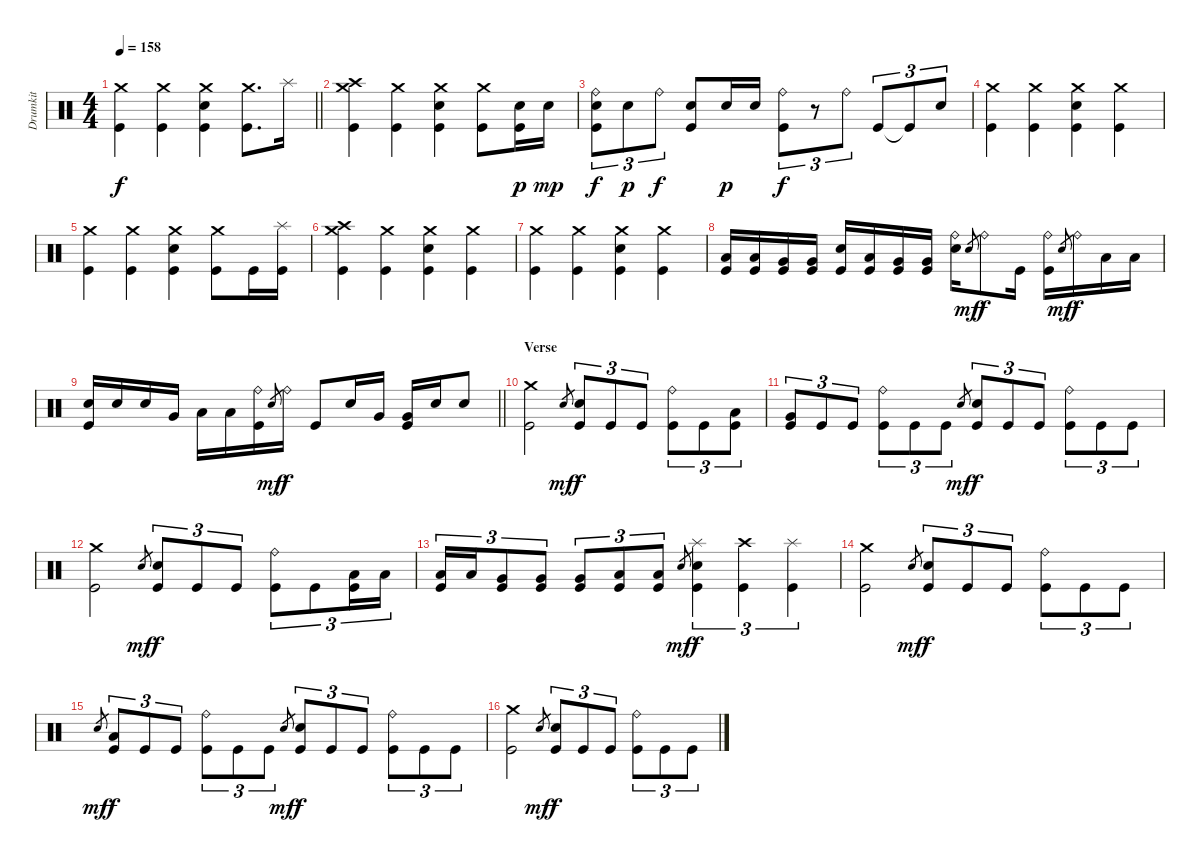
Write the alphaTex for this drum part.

\track ("Drumkit" "Drumkit") {instrument percussion}
\staff {score}
\articulation defaults
\ts (4 4)
\tempo 158
\clef neutral
\barLineRight lightlight
\ks c
("Crash medium (hit)" "Kick (hit)").4{dy f} ("Crash medium (hit)" "Kick (hit)").4 ("Crash medium (hit)" "Snare (hit) 2" "Kick (hit)").4 ("Crash medium (hit)" "Kick (hit)").8{d} "Splash (hit)".16 |
("Crash medium (hit)" "Crash high (hit)" "Kick (hit)").4 ("Crash medium (hit)" "Kick (hit)").4 ("Crash medium (hit)" "Snare (hit) 2" "Kick (hit)").4 ("Crash medium (hit)" "Kick (hit)").8 ("Snare (hit) 2" "Kick (hit)").16{dy p} "Snare (hit) 2".16{dy mp} |
("Ride (bell)" "Snare (hit) 2" "Kick (hit)").8{tu (3 2) dy f} "Snare (hit) 2".8{tu (3 2) dy p} "Ride (bell)".8{tu (3 2) dy f} ("Snare (hit) 2" "Kick (hit)").8 "Snare (hit) 2".16{dy p} "Snare (hit) 2".16 ("Ride (bell)" "Kick (hit)").8{tu (3 2) dy f} r.8{tu (3 2)} "Ride (bell)".8{tu (3 2)} "Kick (hit)".8{tu (3 2)} "Kick (hit)"{t}.8{tu (3 2)} "Snare (hit) 2".8{tu (3 2)} |
("Crash medium (hit)" "Kick (hit)").4 ("Crash medium (hit)" "Kick (hit)").4 ("Crash medium (hit)" "Snare (hit) 2" "Kick (hit)").4 ("Crash medium (hit)" "Kick (hit)").4 |
("Crash medium (hit)" "Kick (hit)").4 ("Crash medium (hit)" "Kick (hit)").4 ("Crash medium (hit)" "Snare (hit) 2" "Kick (hit)").4 ("Crash medium (hit)" "Kick (hit)").8 "Kick (hit)".16 ("Splash (hit)" "Kick (hit)").16 |
("Crash medium (hit)" "Crash high (hit)" "Kick (hit)").4 ("Crash medium (hit)" "Kick (hit)").4 ("Crash medium (hit)" "Snare (hit) 2" "Kick (hit)").4 ("Crash medium (hit)" "Kick (hit)").4 |
("Crash medium (hit)" "Kick (hit)").4 ("Crash medium (hit)" "Kick (hit)").4 ("Crash medium (hit)" "Snare (hit) 2" "Kick (hit)").4 ("Crash medium (hit)" "Kick (hit)").4 |
("Low Tom (hit)" "Kick (hit)").16 ("Low Tom (hit)" "Kick (hit)").16 ("Very Low Tom (hit)" "Kick (hit)").16 ("Very Low Tom (hit)" "Kick (hit)").16 ("Snare (hit) 2" "Kick (hit)").16 ("Low Tom (hit)" "Kick (hit)").16 ("Very Low Tom (hit)" "Kick (hit)").16 ("Very Low Tom (hit)" "Kick (hit)").16 ("Ride (bell)" "Snare (hit) 2").16 "Snare (hit)".8{gr dy mf} "Ride (bell)".8{dy f} "Kick (hit)".16 ("Ride (bell)" "Kick (hit)").16 "Snare (hit)".8{gr dy mf} "Ride (bell)".16{dy f} "Low Tom (hit)".16 "Low Tom (hit)".16 |
\barLineRight lightlight
("Snare (hit) 2" "Kick (hit)").16 "Snare (hit) 2".16 "Snare (hit) 2".16 "Very Low Tom (hit)".16 "Low Floor Tom (hit)".16 "Low Floor Tom (hit)".16 ("Ride (bell)" "Kick (hit)").16 "Snare (hit)".8{gr dy mf} "Ride (bell)".16{dy f} "Kick (hit)".8 "Snare (hit) 2".16 "Very Low Tom (hit)".16 ("Very Low Tom (hit)" "Kick (hit)").16 "Snare (hit) 2".16 "Snare (hit) 2".8 |
\section ("" "Verse")
("Crash medium (hit)" "Kick (hit)").2 "Snare (hit)".8{gr dy mf} ("Snare (hit) 2" "Kick (hit)").8{tu (3 2) dy f} "Kick (hit)".8{tu (3 2)} "Kick (hit)".8{tu (3 2)} ("Ride (bell)" "Kick (hit)").8{tu (3 2)} "Kick (hit)".8{tu (3 2)} ("Low Tom (hit)" "Kick (hit)").8{tu (3 2)} |
("Very Low Tom (hit)" "Kick (hit)").8{tu (3 2)} "Kick (hit)".8{tu (3 2)} "Kick (hit)".8{tu (3 2)} ("Ride (bell)" "Kick (hit)").8{tu (3 2)} "Kick (hit)".8{tu (3 2)} "Kick (hit)".8{tu (3 2)} "Snare (hit)".8{gr dy mf} ("Snare (hit) 2" "Kick (hit)").8{tu (3 2) dy f} "Kick (hit)".8{tu (3 2)} "Kick (hit)".8{tu (3 2)} ("Ride (bell)" "Kick (hit)").8{tu (3 2)} "Kick (hit)".8{tu (3 2)} "Kick (hit)".8{tu (3 2)} |
("Crash medium (hit)" "Kick (hit)").2 "Snare (hit)".8{gr dy mf} ("Snare (hit) 2" "Kick (hit)").8{tu (3 2) dy f} "Kick (hit)".8{tu (3 2)} "Kick (hit)".8{tu (3 2)} ("Ride (bell)" "Kick (hit)").8{tu (3 2)} "Kick (hit)".8{tu (3 2)} ("Low Tom (hit)" "Kick (hit)").16{tu (3 2)} "Low Tom (hit)".16{tu (3 2)} |
("Low Tom (hit)" "Kick (hit)").16{tu (3 2)} "Low Tom (hit)".16{tu (3 2)} ("Very Low Tom (hit)" "Kick (hit)").8{tu (3 2)} ("Very Low Tom (hit)" "Kick (hit)").8{tu (3 2)} ("Very Low Tom (hit)" "Kick (hit)").8{tu (3 2)} ("Low Floor Tom (hit)" "Kick (hit)").8{tu (3 2)} ("Low Floor Tom (hit)" "Kick (hit)").8{tu (3 2)} "Snare (hit)".8{gr dy mf} ("Splash (hit)" "Snare (hit) 2" "Kick (hit)").4{tu (3 2) dy f} ("Crash high (hit)" "Kick (hit)").4{tu (3 2)} ("Splash (hit)" "Kick (hit)").4{tu (3 2)} |
("Crash medium (hit)" "Kick (hit)").2 "Snare (hit)".8{gr dy mf} ("Snare (hit) 2" "Kick (hit)").8{tu (3 2) dy f} "Kick (hit)".8{tu (3 2)} "Kick (hit)".8{tu (3 2)} ("Ride (bell)" "Kick (hit)").8{tu (3 2)} "Kick (hit)".8{tu (3 2)} "Kick (hit)".8{tu (3 2)} |
"Snare (hit)".8{gr dy mf} ("Low Tom (hit)" "Kick (hit)").8{tu (3 2) dy f} "Kick (hit)".8{tu (3 2)} "Kick (hit)".8{tu (3 2)} ("Ride (bell)" "Kick (hit)").8{tu (3 2)} "Kick (hit)".8{tu (3 2)} "Kick (hit)".8{tu (3 2)} "Snare (hit)".8{gr dy mf} ("Snare (hit) 2" "Kick (hit)").8{tu (3 2) dy f} "Kick (hit)".8{tu (3 2)} "Kick (hit)".8{tu (3 2)} ("Ride (bell)" "Kick (hit)").8{tu (3 2)} "Kick (hit)".8{tu (3 2)} "Kick (hit)".8{tu (3 2)} |
("Crash medium (hit)" "Kick (hit)").2 "Snare (hit)".8{gr dy mf} ("Snare (hit) 2" "Kick (hit)").8{tu (3 2) dy f} "Kick (hit)".8{tu (3 2)} "Kick (hit)".8{tu (3 2)} ("Ride (bell)" "Kick (hit)").8{tu (3 2)} "Kick (hit)".8{tu (3 2)} "Kick (hit)".8{tu (3 2)}
